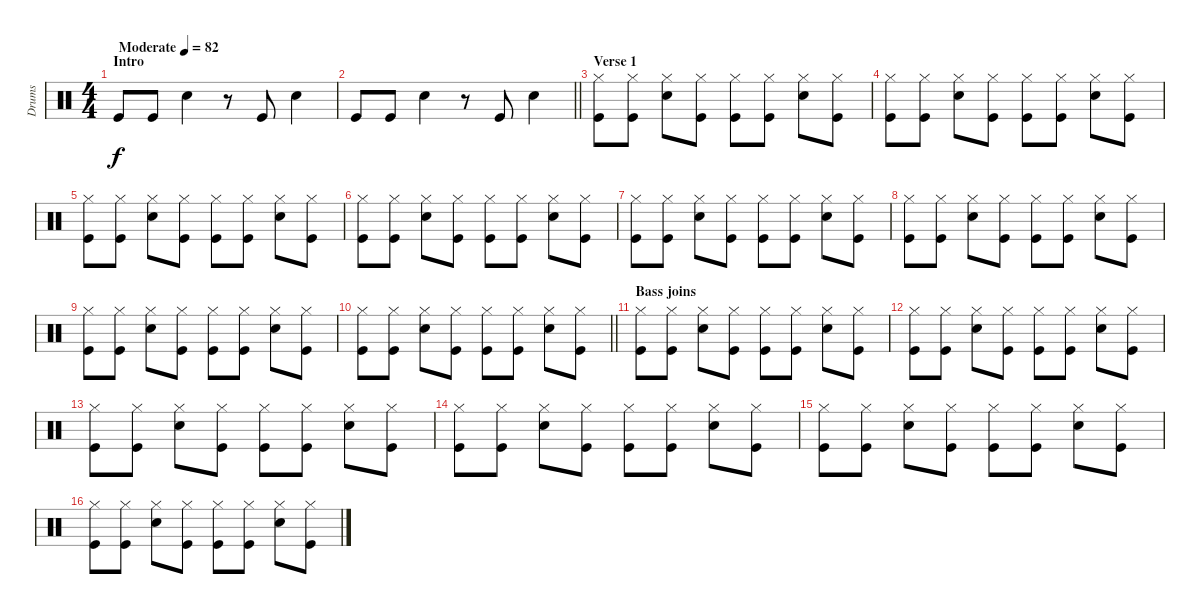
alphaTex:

\track ("Drums" "Drums") {instrument percussion}
\staff {score}
\articulation defaults
\ts (4 4)
\section ("" "Intro")
\tempo (82 "Moderate")
\clef neutral
\ks c "Kick (hit)".8{dy f} "Kick (hit)".8 "Snare (hit) 2".4
r.8 "Kick (hit)".8 "Snare (hit) 2".4 |
\barLineRight lightlight "Kick (hit)".8 "Kick (hit)".8 "Snare (hit) 2".4
r.8 "Kick (hit)".8 "Snare (hit) 2".4 |
\section ("" "Verse 1")
("Hi-Hat (closed)" "Kick (hit)").8 ("Hi-Hat (closed)" "Kick (hit)").8 ("Hi-Hat (closed)" "Snare (hit) 2").8 ("Kick (hit)" "Hi-Hat (closed)").8 ("Kick (hit)" "Hi-Hat (closed)").8 ("Kick (hit)" "Hi-Hat (closed)").8 ("Snare (hit) 2" "Hi-Hat (closed)").8 ("Kick (hit)" "Hi-Hat (closed)").8 |
("Hi-Hat (closed)" "Kick (hit)").8 ("Hi-Hat (closed)" "Kick (hit)").8 ("Hi-Hat (closed)" "Snare (hit) 2").8 ("Kick (hit)" "Hi-Hat (closed)").8 ("Kick (hit)" "Hi-Hat (closed)").8 ("Kick (hit)" "Hi-Hat (closed)").8 ("Snare (hit) 2" "Hi-Hat (closed)").8 ("Kick (hit)" "Hi-Hat (closed)").8 |
("Hi-Hat (closed)" "Kick (hit)").8 ("Hi-Hat (closed)" "Kick (hit)").8 ("Hi-Hat (closed)" "Snare (hit) 2").8 ("Kick (hit)" "Hi-Hat (closed)").8 ("Kick (hit)" "Hi-Hat (closed)").8 ("Kick (hit)" "Hi-Hat (closed)").8 ("Snare (hit) 2" "Hi-Hat (closed)").8 ("Kick (hit)" "Hi-Hat (closed)").8 |
("Hi-Hat (closed)" "Kick (hit)").8 ("Hi-Hat (closed)" "Kick (hit)").8 ("Hi-Hat (closed)" "Snare (hit) 2").8 ("Kick (hit)" "Hi-Hat (closed)").8 ("Kick (hit)" "Hi-Hat (closed)").8 ("Kick (hit)" "Hi-Hat (closed)").8 ("Snare (hit) 2" "Hi-Hat (closed)").8 ("Kick (hit)" "Hi-Hat (closed)").8 |
("Hi-Hat (closed)" "Kick (hit)").8 ("Hi-Hat (closed)" "Kick (hit)").8 ("Hi-Hat (closed)" "Snare (hit) 2").8 ("Kick (hit)" "Hi-Hat (closed)").8 ("Kick (hit)" "Hi-Hat (closed)").8 ("Kick (hit)" "Hi-Hat (closed)").8 ("Snare (hit) 2" "Hi-Hat (closed)").8 ("Kick (hit)" "Hi-Hat (closed)").8 |
("Hi-Hat (closed)" "Kick (hit)").8 ("Hi-Hat (closed)" "Kick (hit)").8 ("Hi-Hat (closed)" "Snare (hit) 2").8 ("Kick (hit)" "Hi-Hat (closed)").8 ("Kick (hit)" "Hi-Hat (closed)").8 ("Kick (hit)" "Hi-Hat (closed)").8 ("Snare (hit) 2" "Hi-Hat (closed)").8 ("Kick (hit)" "Hi-Hat (closed)").8 |
("Hi-Hat (closed)" "Kick (hit)").8 ("Hi-Hat (closed)" "Kick (hit)").8 ("Hi-Hat (closed)" "Snare (hit) 2").8 ("Kick (hit)" "Hi-Hat (closed)").8 ("Kick (hit)" "Hi-Hat (closed)").8 ("Kick (hit)" "Hi-Hat (closed)").8 ("Snare (hit) 2" "Hi-Hat (closed)").8 ("Kick (hit)" "Hi-Hat (closed)").8 |
\barLineRight lightlight
("Hi-Hat (closed)" "Kick (hit)").8 ("Hi-Hat (closed)" "Kick (hit)").8 ("Hi-Hat (closed)" "Snare (hit) 2").8 ("Kick (hit)" "Hi-Hat (closed)").8 ("Kick (hit)" "Hi-Hat (closed)").8 ("Kick (hit)" "Hi-Hat (closed)").8 ("Snare (hit) 2" "Hi-Hat (closed)").8 ("Kick (hit)" "Hi-Hat (closed)").8 |
\section ("" "Bass joins")
("Hi-Hat (closed)" "Kick (hit)").8 ("Hi-Hat (closed)" "Kick (hit)").8 ("Hi-Hat (closed)" "Snare (hit) 2").8 ("Kick (hit)" "Hi-Hat (closed)").8 ("Kick (hit)" "Hi-Hat (closed)").8 ("Kick (hit)" "Hi-Hat (closed)").8 ("Snare (hit) 2" "Hi-Hat (closed)").8 ("Kick (hit)" "Hi-Hat (closed)").8 |
("Hi-Hat (closed)" "Kick (hit)").8 ("Hi-Hat (closed)" "Kick (hit)").8 ("Hi-Hat (closed)" "Snare (hit) 2").8 ("Kick (hit)" "Hi-Hat (closed)").8 ("Kick (hit)" "Hi-Hat (closed)").8 ("Kick (hit)" "Hi-Hat (closed)").8 ("Snare (hit) 2" "Hi-Hat (closed)").8 ("Kick (hit)" "Hi-Hat (closed)").8 |
("Hi-Hat (closed)" "Kick (hit)").8 ("Hi-Hat (closed)" "Kick (hit)").8 ("Hi-Hat (closed)" "Snare (hit) 2").8 ("Kick (hit)" "Hi-Hat (closed)").8 ("Kick (hit)" "Hi-Hat (closed)").8 ("Kick (hit)" "Hi-Hat (closed)").8 ("Snare (hit) 2" "Hi-Hat (closed)").8 ("Kick (hit)" "Hi-Hat (closed)").8 |
("Hi-Hat (closed)" "Kick (hit)").8 ("Hi-Hat (closed)" "Kick (hit)").8 ("Hi-Hat (closed)" "Snare (hit) 2").8 ("Kick (hit)" "Hi-Hat (closed)").8 ("Kick (hit)" "Hi-Hat (closed)").8 ("Kick (hit)" "Hi-Hat (closed)").8 ("Snare (hit) 2" "Hi-Hat (closed)").8 ("Kick (hit)" "Hi-Hat (closed)").8 |
("Hi-Hat (closed)" "Kick (hit)").8 ("Hi-Hat (closed)" "Kick (hit)").8 ("Hi-Hat (closed)" "Snare (hit) 2").8 ("Kick (hit)" "Hi-Hat (closed)").8 ("Kick (hit)" "Hi-Hat (closed)").8 ("Kick (hit)" "Hi-Hat (closed)").8 ("Snare (hit) 2" "Hi-Hat (closed)").8 ("Kick (hit)" "Hi-Hat (closed)").8 |
("Hi-Hat (closed)" "Kick (hit)").8 ("Hi-Hat (closed)" "Kick (hit)").8 ("Hi-Hat (closed)" "Snare (hit) 2").8 ("Kick (hit)" "Hi-Hat (closed)").8 ("Kick (hit)" "Hi-Hat (closed)").8 ("Kick (hit)" "Hi-Hat (closed)").8 ("Snare (hit) 2" "Hi-Hat (closed)").8 ("Kick (hit)" "Hi-Hat (closed)").8
